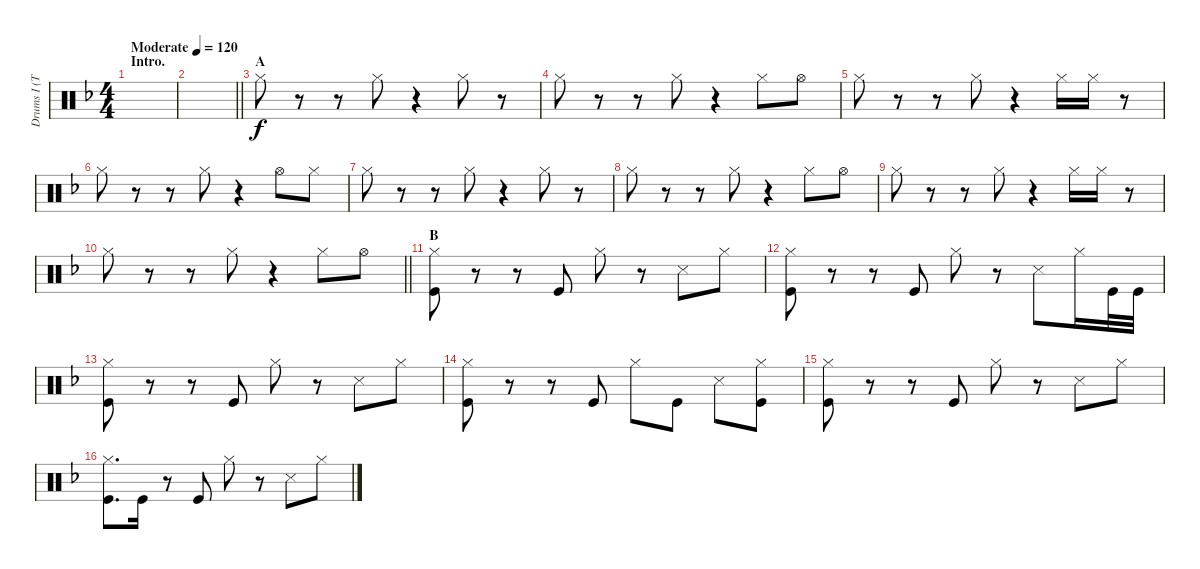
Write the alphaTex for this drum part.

\track ("Drums I (Tainaka Ritsu)" "Drums I (T") {instrument percussion}
\staff {score}
\articulation defaults
\ts (4 4)
\section ("" "Intro.")
\tempo (120 "Moderate")
\clef neutral
\ks f
|
\barLineRight lightlight
|
\section ("" "A")
"Hi-Hat (closed)".8 r.8 r.8 "Hi-Hat (closed)".8 r.4 "Hi-Hat (closed)".8 r.8 |
"Hi-Hat (closed)".8 r.8 r.8 "Hi-Hat (closed)".8 r.4 "Hi-Hat (closed)".8 "Hi-Hat (open)".8 |
"Hi-Hat (closed)".8 r.8 r.8 "Hi-Hat (closed)".8 r.4 "Hi-Hat (closed)".16 "Hi-Hat (closed)".16 r.8 |
"Hi-Hat (closed)".8 r.8 r.8 "Hi-Hat (closed)".8 r.4 "Hi-Hat (open)".8 "Hi-Hat (closed)".8 |
"Hi-Hat (closed)".8 r.8 r.8 "Hi-Hat (closed)".8 r.4 "Hi-Hat (closed)".8 r.8 |
"Hi-Hat (closed)".8 r.8 r.8 "Hi-Hat (closed)".8 r.4 "Hi-Hat (closed)".8 "Hi-Hat (open)".8 |
"Hi-Hat (closed)".8 r.8 r.8 "Hi-Hat (closed)".8 r.4 "Hi-Hat (closed)".16 "Hi-Hat (closed)".16 r.8 |
\barLineRight lightlight "Hi-Hat (closed)".8
r.8 r.8 "Hi-Hat (closed)".8 r.4 "Hi-Hat (closed)".8 "Hi-Hat (open)".8 |
\section ("" "B")
("Hi-Hat (closed)" "Kick (hit)").8 r.8 r.8 "Kick (hit)".8 "Hi-Hat (closed)".8 r.8 "Snare (side stick) 3".8 "Hi-Hat (closed)".8 |
("Hi-Hat (closed)" "Kick (hit)").8 r.8 r.8 "Kick (hit)".8 "Hi-Hat (closed)".8 r.8 "Snare (side stick) 3".8 "Hi-Hat (closed)".16 "Kick (hit)".32 "Kick (hit)".32 |
("Hi-Hat (closed)" "Kick (hit)").8 r.8 r.8 "Kick (hit)".8 "Hi-Hat (closed)".8 r.8 "Snare (side stick) 3".8 "Hi-Hat (closed)".8 |
("Hi-Hat (closed)" "Kick (hit)").8 r.8 r.8 "Kick (hit)".8 "Hi-Hat (closed)".8 "Kick (hit)".8 "Snare (side stick) 3".8 ("Hi-Hat (closed)" "Kick (hit)").8 |
("Hi-Hat (closed)" "Kick (hit)").8 r.8 r.8 "Kick (hit)".8 "Hi-Hat (closed)".8 r.8 "Snare (side stick) 3".8 "Hi-Hat (closed)".8 |
("Hi-Hat (closed)" "Kick (hit)").8{d} "Kick (hit)".16 r.8 "Kick (hit)".8 "Hi-Hat (closed)".8 r.8 "Snare (side stick) 3".8 "Hi-Hat (closed)".8
